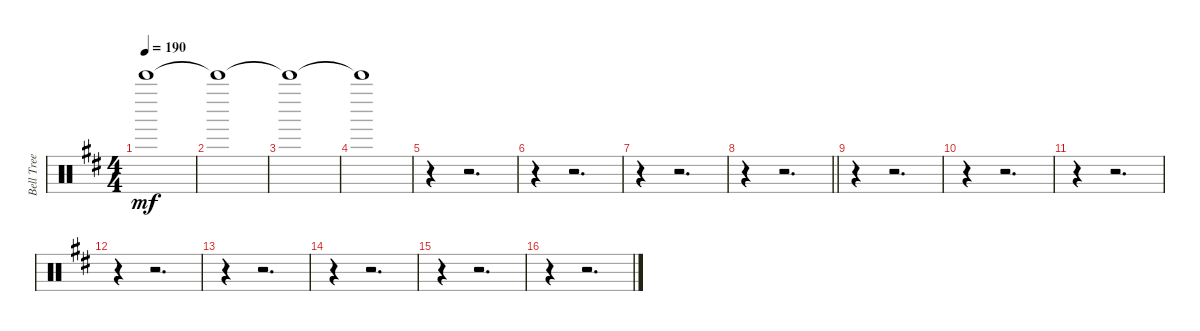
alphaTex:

\track ("Bell Tree" "Bell Tree") {instrument percussion}
\staff {score}
\articulation defaults
\ts (4 4)
\section ("" "")
\tempo 190
\clef neutral
\ks d "Bell Tree (hit)".1{dy mf}
|
"Bell Tree (hit)"{t}.1 |
"Bell Tree (hit)"{t}.1 |
"Bell Tree (hit)"{t}.1 |
r.4 r.2{d} |
r.4 r.2{d} |
r.4 r.2{d} |
\barLineRight lightlight
r.4 r.2{d} |
\section ("" "")
r.4 r.2{d} |
r.4 r.2{d} |
r.4 r.2{d} |
r.4 r.2{d} |
r.4 r.2{d} |
r.4 r.2{d} |
r.4 r.2{d} |
r.4 r.2{d}
